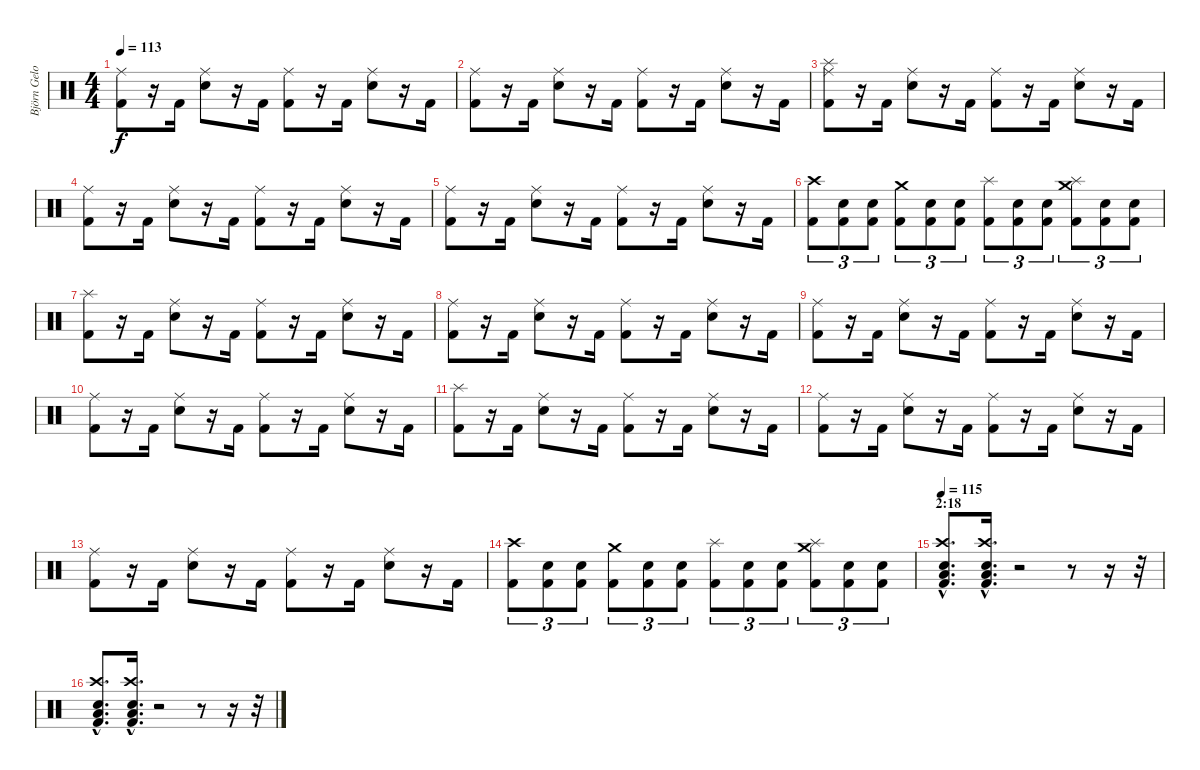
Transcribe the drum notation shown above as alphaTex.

\track ("Björn Gelotte" "Björn Gelo") {instrument percussion}
\staff {score}
\articulation defaults
\ts (4 4)
\tempo 113
\clef neutral
\ks c
("Ride (middle)" "Kick (hit) 2").8{dy f} r.16 "Kick (hit) 2".16 ("Ride (middle)" "Electric Snare (hit)").8 r.16 "Kick (hit) 2".16 ("Ride (middle)" "Kick (hit) 2").8 r.16 "Kick (hit) 2".16 ("Ride (middle)" "Electric Snare (hit)").8 r.16 "Kick (hit) 2".16 |
("Ride (middle)" "Kick (hit) 2").8 r.16 "Kick (hit) 2".16 ("Ride (middle)" "Electric Snare (hit)").8 r.16 "Kick (hit) 2".16 ("Ride (middle)" "Kick (hit) 2").8 r.16 "Kick (hit) 2".16 ("Ride (middle)" "Electric Snare (hit)").8 r.16 "Kick (hit) 2".16 |
("Ride (middle)" "Splash (hit)" "Kick (hit) 2").8 r.16 "Kick (hit) 2".16 ("Ride (middle)" "Electric Snare (hit)").8 r.16 "Kick (hit) 2".16 ("Ride (middle)" "Kick (hit) 2").8 r.16 "Kick (hit) 2".16 ("Ride (middle)" "Electric Snare (hit)").8 r.16 "Kick (hit) 2".16 |
("Ride (middle)" "Kick (hit) 2").8 r.16 "Kick (hit) 2".16 ("Ride (middle)" "Electric Snare (hit)").8 r.16 "Kick (hit) 2".16 ("Ride (middle)" "Kick (hit) 2").8 r.16 "Kick (hit) 2".16 ("Ride (middle)" "Electric Snare (hit)").8 r.16 "Kick (hit) 2".16 |
("Ride (middle)" "Kick (hit) 2").8 r.16 "Kick (hit) 2".16 ("Ride (middle)" "Electric Snare (hit)").8 r.16 "Kick (hit) 2".16 ("Ride (middle)" "Kick (hit) 2").8 r.16 "Kick (hit) 2".16 ("Ride (middle)" "Electric Snare (hit)").8 r.16 "Kick (hit) 2".16 |
("Crash high (hit)" "Kick (hit) 2").8{tu (3 2)} ("Electric Snare (hit)" "Kick (hit) 2").8{tu (3 2)} ("Electric Snare (hit)" "Kick (hit) 2").8{tu (3 2)} ("Crash medium (hit)" "Kick (hit) 2").8{tu (3 2)} ("Electric Snare (hit)" "Kick (hit) 2").8{tu (3 2)} ("Electric Snare (hit)" "Kick (hit) 2").8{tu (3 2)} ("Splash (hit)" "Kick (hit) 2").8{tu (3 2)} ("Electric Snare (hit)" "Kick (hit) 2").8{tu (3 2)} ("Electric Snare (hit)" "Kick (hit) 2").8{tu (3 2)} ("Splash (hit)" "Crash medium (hit)" "Kick (hit) 2").8{tu (3 2)} ("Electric Snare (hit)" "Kick (hit) 2").8{tu (3 2)} ("Electric Snare (hit)" "Kick (hit) 2").8{tu (3 2)} |
("Splash (hit)" "Kick (hit) 2").8 r.16 "Kick (hit) 2".16 ("Ride (middle)" "Electric Snare (hit)").8 r.16 "Kick (hit) 2".16 ("Ride (middle)" "Kick (hit) 2").8 r.16 "Kick (hit) 2".16 ("Ride (middle)" "Electric Snare (hit)").8 r.16 "Kick (hit) 2".16 |
("Ride (middle)" "Kick (hit) 2").8 r.16 "Kick (hit) 2".16 ("Ride (middle)" "Electric Snare (hit)").8 r.16 "Kick (hit) 2".16 ("Ride (middle)" "Kick (hit) 2").8 r.16 "Kick (hit) 2".16 ("Ride (middle)" "Electric Snare (hit)").8 r.16 "Kick (hit) 2".16 |
("Ride (middle)" "Kick (hit) 2").8 r.16 "Kick (hit) 2".16 ("Ride (middle)" "Electric Snare (hit)").8 r.16 "Kick (hit) 2".16 ("Ride (middle)" "Kick (hit) 2").8 r.16 "Kick (hit) 2".16 ("Ride (middle)" "Electric Snare (hit)").8 r.16 "Kick (hit) 2".16 |
("Ride (middle)" "Kick (hit) 2").8 r.16 "Kick (hit) 2".16 ("Ride (middle)" "Electric Snare (hit)").8 r.16 "Kick (hit) 2".16 ("Ride (middle)" "Kick (hit) 2").8 r.16 "Kick (hit) 2".16 ("Ride (middle)" "Electric Snare (hit)").8 r.16 "Kick (hit) 2".16 |
("Splash (hit)" "Kick (hit) 2").8 r.16 "Kick (hit) 2".16 ("Ride (middle)" "Electric Snare (hit)").8 r.16 "Kick (hit) 2".16 ("Ride (middle)" "Kick (hit) 2").8 r.16 "Kick (hit) 2".16 ("Ride (middle)" "Electric Snare (hit)").8 r.16 "Kick (hit) 2".16 |
("Ride (middle)" "Kick (hit) 2").8 r.16 "Kick (hit) 2".16 ("Ride (middle)" "Electric Snare (hit)").8 r.16 "Kick (hit) 2".16 ("Ride (middle)" "Kick (hit) 2").8 r.16 "Kick (hit) 2".16 ("Ride (middle)" "Electric Snare (hit)").8 r.16 "Kick (hit) 2".16 |
("Ride (middle)" "Kick (hit) 2").8 r.16 "Kick (hit) 2".16 ("Ride (middle)" "Electric Snare (hit)").8 r.16 "Kick (hit) 2".16 ("Ride (middle)" "Kick (hit) 2").8 r.16 "Kick (hit) 2".16 ("Ride (middle)" "Electric Snare (hit)").8 r.16 "Kick (hit) 2".16 |
("Crash high (hit)" "Kick (hit) 2").8{tu (3 2)} ("Electric Snare (hit)" "Kick (hit) 2").8{tu (3 2)} ("Electric Snare (hit)" "Kick (hit) 2").8{tu (3 2)} ("Crash medium (hit)" "Kick (hit) 2").8{tu (3 2)} ("Electric Snare (hit)" "Kick (hit) 2").8{tu (3 2)} ("Electric Snare (hit)" "Kick (hit) 2").8{tu (3 2)} ("Splash (hit)" "Kick (hit) 2").8{tu (3 2)} ("Electric Snare (hit)" "Kick (hit) 2").8{tu (3 2)} ("Electric Snare (hit)" "Kick (hit) 2").8{tu (3 2)} ("Splash (hit)" "Crash medium (hit)" "Kick (hit) 2").8{tu (3 2)} ("Electric Snare (hit)" "Kick (hit) 2").8{tu (3 2)} ("Electric Snare (hit)" "Kick (hit) 2").8{tu (3 2)} |
\section ("" "2:18")
\tempo 115
("Crash high (hit)"{hac} "Electric Snare (hit)"{hac} "Low Floor Tom (hit)"{hac} "Kick (hit) 2"{hac}).8{d} ("Crash high (hit)"{hac} "Electric Snare (hit)"{hac} "Low Floor Tom (hit)"{hac} "Kick (hit) 2"{hac}).16{d} r.2 r.8 r.16 r.32 |
("Crash high (hit)"{hac} "Electric Snare (hit)"{hac} "Low Floor Tom (hit)"{hac} "Kick (hit) 2"{hac}).8{d} ("Crash high (hit)"{hac} "Electric Snare (hit)"{hac} "Low Floor Tom (hit)"{hac} "Kick (hit) 2"{hac}).16{d} r.2 r.8 r.16 r.32
